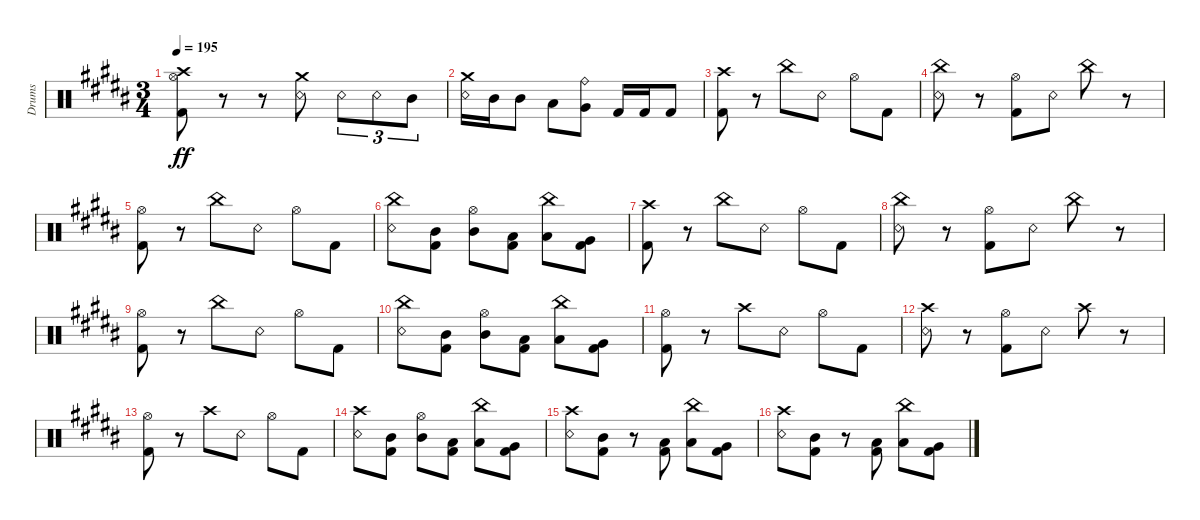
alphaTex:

\bracketExtendMode groupsimilarinstruments
\otherSystemsTrackNameOrientation horizontal
\track ("Drumkit" "Drums") {instrument percussion}
\staff {score}
\articulation defaults
\ts (3 4)
\tempo 195
\clef neutral
\ks b
("Kick (hit) 2"{acc bb} "Hi-Hat (open)"{acc bb} "Crash high (hit)"{acc bb}).8{dy ff beam Down} r.8{beam Down} r.8{beam Down} ("Snare (rim shot)"{acc bb} "Crash medium (hit)"{acc bb}).8{beam Down} "Snare (rim shot)"{acc bb}.8{tu (3 2) beam Down} "Snare (rim shot)"{acc bb}.8{tu (3 2) beam Down} "Mid Tom (hit)"{acc bb}.8{tu (3 2) beam Down} |
("Snare (rim shot)"{acc bb} "Crash medium (hit)"{acc bb}).16{beam Down} "Mid Tom (hit)"{acc bb}.16{beam Down} "Mid Tom (hit)"{acc bb}.8{beam Down} "Low Tom (hit)"{acc bb}.8{beam Down} ("Ride (bell)"{acc bb} "Very Low Tom (hit)"{acc bb}).8{beam Down} "Kick (hit) 2"{acc bb}.16{beam Up} "Kick (hit) 2"{acc bb}.16{beam Up} "Kick (hit) 2"{acc bb}.8{beam Up} |
("Kick (hit) 2"{acc bb} "Crash high (hit)"{acc bb}).8{beam Down} r.8{beam Down} "China (hit)"{acc bb}.8{beam Down} "Snare (rim shot)"{acc bb}.8{beam Down} "Hi-Hat (open)"{acc bb}.8{beam Down} "Kick (hit) 2"{acc bb}.8{beam Down} |
("Snare (rim shot)"{acc bb} "China (hit)"{acc bb}).8{beam Down} r.8{beam Down} ("Kick (hit) 2"{acc bb} "Hi-Hat (open)"{acc bb}).8{beam Down} "Snare (rim shot)"{acc bb}.8{beam Down} "China (hit)"{acc bb}.8{beam Down} r.8{beam Down} |
("Kick (hit) 2"{acc bb} "Hi-Hat (open)"{acc bb}).8{beam Down} r.8{beam Down} "China (hit)"{acc bb}.8{beam Down} "Snare (rim shot)"{acc bb}.8{beam Down} "Hi-Hat (open)"{acc bb}.8{beam Down} "Kick (hit) 2"{acc bb}.8{beam Down} |
("Snare (rim shot)"{acc bb} "China (hit)"{acc bb}).8{beam Down} ("Kick (hit) 2"{acc bb} "Mid Tom (hit)"{acc bb}).8{beam Down} ("Hi-Hat (open)"{acc bb} "Mid Tom (hit)"{acc bb}).8{beam Down} ("Low Tom (hit)"{acc bb} "Kick (hit) 2"{acc bb}).8{beam Down} ("Low Tom (hit)"{acc bb} "China (hit)"{acc bb}).8{beam Down} ("Very Low Tom (hit)"{acc bb} "Kick (hit) 2"{acc bb}).8{beam Down} |
("Kick (hit) 2"{acc bb} "Crash high (hit)"{acc bb}).8{beam Down} r.8{beam Down} "China (hit)"{acc bb}.8{beam Down} "Snare (rim shot)"{acc bb}.8{beam Down} "Hi-Hat (open)"{acc bb}.8{beam Down} "Kick (hit) 2"{acc bb}.8{beam Down} |
("Snare (rim shot)"{acc bb} "China (hit)"{acc bb}).8{beam Down} r.8{beam Down} ("Kick (hit) 2"{acc bb} "Hi-Hat (open)"{acc bb}).8{beam Down} "Snare (rim shot)"{acc bb}.8{beam Down} "China (hit)"{acc bb}.8{beam Down} r.8{beam Down} |
("Kick (hit) 2"{acc bb} "Hi-Hat (open)"{acc bb}).8{beam Down} r.8{beam Down} "China (hit)"{acc bb}.8{beam Down} "Snare (rim shot)"{acc bb}.8{beam Down} "Hi-Hat (open)"{acc bb}.8{beam Down} "Kick (hit) 2"{acc bb}.8{beam Down} |
("Snare (rim shot)"{acc bb} "China (hit)"{acc bb}).8{beam Down} ("Kick (hit) 2"{acc bb} "Mid Tom (hit)"{acc bb}).8{beam Down} ("Hi-Hat (open)"{acc bb} "Mid Tom (hit)"{acc bb}).8{beam Down} ("Low Tom (hit)"{acc bb} "Kick (hit) 2"{acc bb}).8{beam Down} ("Low Tom (hit)"{acc bb} "China (hit)"{acc bb}).8{beam Down} ("Very Low Tom (hit)"{acc bb} "Kick (hit) 2"{acc bb}).8{beam Down} |
("Kick (hit) 2"{acc bb} "Hi-Hat (open)"{acc bb}).8{beam Down} r.8{beam Down} "Crash high (hit)"{acc bb}.8{beam Down} "Snare (rim shot)"{acc bb}.8{beam Down} "Hi-Hat (open)"{acc bb}.8{beam Down} "Kick (hit) 2"{acc bb}.8{beam Down} |
("Snare (rim shot)"{acc bb} "Crash high (hit)"{acc bb}).8{beam Down} r.8{beam Down} ("Kick (hit) 2"{acc bb} "Hi-Hat (open)"{acc bb}).8{beam Down} "Snare (rim shot)"{acc bb}.8{beam Down} "Crash high (hit)"{acc bb}.8{beam Down} r.8{beam Down} |
("Kick (hit) 2"{acc bb} "Hi-Hat (open)"{acc bb}).8{beam Down} r.8{beam Down} "Crash high (hit)"{acc bb}.8{beam Down} "Snare (rim shot)"{acc bb}.8{beam Down} "Hi-Hat (open)"{acc bb}.8{beam Down} "Kick (hit) 2"{acc bb}.8{beam Down} |
("Snare (rim shot)"{acc bb} "Crash high (hit)"{acc bb}).8{beam Down} ("Kick (hit) 2"{acc bb} "Mid Tom (hit)"{acc bb}).8{beam Down} ("Hi-Hat (open)"{acc bb} "Mid Tom (hit)"{acc bb}).8{beam Down} ("Low Tom (hit)"{acc bb} "Kick (hit) 2"{acc bb}).8{beam Down} ("Low Tom (hit)"{acc bb} "China (hit)"{acc bb}).8{beam Down} ("Very Low Tom (hit)"{acc bb} "Kick (hit) 2"{acc bb}).8{beam Down} |
("Snare (rim shot)"{acc bb} "Crash high (hit)"{acc bb}).8{beam Down} ("Kick (hit) 2"{acc bb} "Mid Tom (hit)"{acc bb}).8{beam Down} r.8{beam Down} ("Kick (hit) 2"{acc bb} "Low Tom (hit)"{acc bb}).8{beam Up} ("Low Tom (hit)"{acc bb} "China (hit)"{acc bb}).8{beam Down} ("Very Low Tom (hit)"{acc bb} "Kick (hit) 2"{acc bb}).8{beam Down} |
("Snare (rim shot)"{acc bb} "Crash high (hit)"{acc bb}).8{beam Down} ("Kick (hit) 2"{acc bb} "Mid Tom (hit)"{acc bb}).8{beam Down} r.8{beam Down} ("Kick (hit) 2"{acc bb} "Low Tom (hit)"{acc bb}).8{beam Up} ("Low Tom (hit)"{acc bb} "China (hit)"{acc bb}).8{beam Down} ("Very Low Tom (hit)"{acc bb} "Kick (hit) 2"{acc bb}).8{beam Down}
